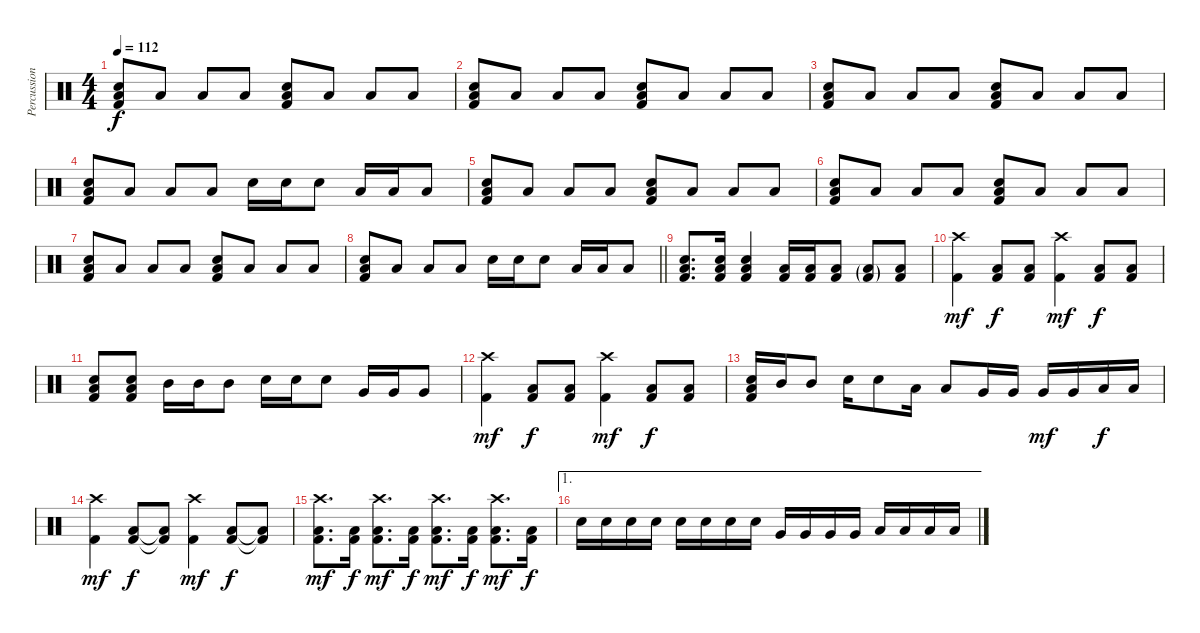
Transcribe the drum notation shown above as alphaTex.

\track ("Percussion" "Percussion") {instrument percussion}
\staff {score}
\articulation defaults
\ts (4 4)
\tempo 112
\clef neutral
\ks c
("Snare (hit) 2" "Low Floor Tom (hit)" "Kick (hit) 2").8{dy f} "Low Floor Tom (hit)".8 "Low Floor Tom (hit)".8 "Low Floor Tom (hit)".8 ("Snare (hit) 2" "Low Floor Tom (hit)" "Kick (hit) 2").8 "Low Floor Tom (hit)".8 "Low Floor Tom (hit)".8 "Low Floor Tom (hit)".8 |
("Snare (hit) 2" "Low Floor Tom (hit)" "Kick (hit) 2").8 "Low Floor Tom (hit)".8 "Low Floor Tom (hit)".8 "Low Floor Tom (hit)".8 ("Snare (hit) 2" "Low Floor Tom (hit)" "Kick (hit) 2").8 "Low Floor Tom (hit)".8 "Low Floor Tom (hit)".8 "Low Floor Tom (hit)".8 |
("Snare (hit) 2" "Low Floor Tom (hit)" "Kick (hit) 2").8 "Low Floor Tom (hit)".8 "Low Floor Tom (hit)".8 "Low Floor Tom (hit)".8 ("Snare (hit) 2" "Low Floor Tom (hit)" "Kick (hit) 2").8 "Low Floor Tom (hit)".8 "Low Floor Tom (hit)".8 "Low Floor Tom (hit)".8 |
("Snare (hit) 2" "Low Floor Tom (hit)" "Kick (hit) 2").8 "Low Floor Tom (hit)".8 "Low Floor Tom (hit)".8 "Low Floor Tom (hit)".8 "Snare (hit) 2".16 "Snare (hit) 2".16 "Snare (hit) 2".8 "Low Tom (hit)".16 "Low Tom (hit)".16 "Low Tom (hit)".8 |
("Snare (hit) 2" "Low Floor Tom (hit)" "Kick (hit) 2").8 "Low Floor Tom (hit)".8 "Low Floor Tom (hit)".8 "Low Floor Tom (hit)".8 ("Snare (hit) 2" "Low Floor Tom (hit)" "Kick (hit) 2").8 "Low Floor Tom (hit)".8 "Low Floor Tom (hit)".8 "Low Floor Tom (hit)".8 |
("Snare (hit) 2" "Low Floor Tom (hit)" "Kick (hit) 2").8 "Low Floor Tom (hit)".8 "Low Floor Tom (hit)".8 "Low Floor Tom (hit)".8 ("Snare (hit) 2" "Low Floor Tom (hit)" "Kick (hit) 2").8 "Low Floor Tom (hit)".8 "Low Floor Tom (hit)".8 "Low Floor Tom (hit)".8 |
("Snare (hit) 2" "Low Floor Tom (hit)" "Kick (hit) 2").8 "Low Floor Tom (hit)".8 "Low Floor Tom (hit)".8 "Low Floor Tom (hit)".8 ("Snare (hit) 2" "Low Floor Tom (hit)" "Kick (hit) 2").8 "Low Floor Tom (hit)".8 "Low Floor Tom (hit)".8 "Low Floor Tom (hit)".8 |
\barLineRight lightlight
("Snare (hit) 2" "Low Floor Tom (hit)" "Kick (hit) 2").8 "Low Floor Tom (hit)".8 "Low Floor Tom (hit)".8 "Low Floor Tom (hit)".8 "Snare (hit) 2".16 "Snare (hit) 2".16 "Snare (hit) 2".8 "Low Tom (hit)".16 "Low Tom (hit)".16 "Low Tom (hit)".8 |
("Snare (hit) 2" "Low Floor Tom (hit)" "Kick (hit) 2").8{d} ("Snare (hit) 2" "Low Floor Tom (hit)" "Kick (hit) 2").16 ("Snare (hit) 2" "Low Floor Tom (hit)" "Kick (hit) 2").4 ("Low Floor Tom (hit)" "Kick (hit) 2").16 ("Low Floor Tom (hit)" "Kick (hit) 2").16 ("Low Floor Tom (hit)" "Kick (hit) 2").8 ("Low Floor Tom (hit)"{g} "Kick (hit) 2"{g}).8 ("Low Floor Tom (hit)" "Kick (hit) 2").8 |
("Crash high (hit)" "Kick (hit) 2").4{dy mf} ("Low Floor Tom (hit)" "Kick (hit) 2").8{dy f} ("Low Floor Tom (hit)" "Kick (hit) 2").8 ("Crash high (hit)" "Kick (hit) 2").4{dy mf} ("Low Floor Tom (hit)" "Kick (hit) 2").8{dy f} ("Low Floor Tom (hit)" "Kick (hit) 2").8 |
("Low Floor Tom (hit)" "Snare (hit) 2" "Kick (hit) 2").8 ("Low Floor Tom (hit)" "Snare (hit) 2" "Kick (hit) 2").8 "Mid Tom (hit)".16 "Mid Tom (hit)".16 "Mid Tom (hit)".8 "Snare (hit) 2".16 "Snare (hit) 2".16 "Snare (hit) 2".8 "Very Low Tom (hit)".16 "Very Low Tom (hit)".16 "Very Low Tom (hit)".8 |
("Crash high (hit)" "Kick (hit) 2").4{dy mf} ("Low Floor Tom (hit)" "Kick (hit) 2").8{dy f} ("Low Floor Tom (hit)" "Kick (hit) 2").8 ("Crash high (hit)" "Kick (hit) 2").4{dy mf} ("Low Floor Tom (hit)" "Kick (hit) 2").8{dy f} ("Low Floor Tom (hit)" "Kick (hit) 2").8 |
("Snare (hit) 2" "Low Floor Tom (hit)" "Kick (hit) 2").16 "Mid Tom (hit)".16 "Mid Tom (hit)".8 "Snare (hit) 2".16 "Snare (hit) 2".8 "Low Tom (hit)".16 "Low Tom (hit)".8 "Very Low Tom (hit)".16 "Very Low Tom (hit)".16 "Very Low Tom (hit)".16{dy mf} "Very Low Tom (hit)".16 "Low Floor Tom (hit)".16{dy f} "Low Floor Tom (hit)".16 |
("Crash high (hit)" "Kick (hit) 2").4{dy mf} ("Low Floor Tom (hit)" "Kick (hit) 2").8{dy f} ("Low Floor Tom (hit)"{t} "Kick (hit) 2"{t}).8 ("Crash high (hit)" "Kick (hit) 2").4{dy mf} ("Low Floor Tom (hit)" "Kick (hit) 2").8{dy f} ("Low Floor Tom (hit)"{t} "Kick (hit) 2"{t}).8 |
("Crash high (hit)" "Low Floor Tom (hit)" "Kick (hit) 2").8{d dy mf} ("Low Floor Tom (hit)" "Kick (hit) 2").16{dy f} ("Crash high (hit)" "Low Floor Tom (hit)" "Kick (hit) 2").8{d dy mf} ("Low Floor Tom (hit)" "Kick (hit) 2").16{dy f} ("Crash high (hit)" "Low Floor Tom (hit)" "Kick (hit) 2").8{d dy mf} ("Low Floor Tom (hit)" "Kick (hit) 2").16{dy f} ("Crash high (hit)" "Low Floor Tom (hit)" "Kick (hit) 2").8{d dy mf} ("Low Floor Tom (hit)" "Kick (hit) 2").16{dy f} |
\ae 1 "Snare (hit) 2".16 "Snare (hit) 2".16 "Snare (hit) 2".16 "Snare (hit) 2".16 "Snare (hit) 2".16 "Snare (hit) 2".16 "Snare (hit) 2".16 "Snare (hit) 2".16 "Very Low Tom (hit)".16 "Very Low Tom (hit)".16 "Very Low Tom (hit)".16 "Very Low Tom (hit)".16 "Low Floor Tom (hit)".16 "Low Floor Tom (hit)".16 "Low Floor Tom (hit)".16 "Low Floor Tom (hit)".16
